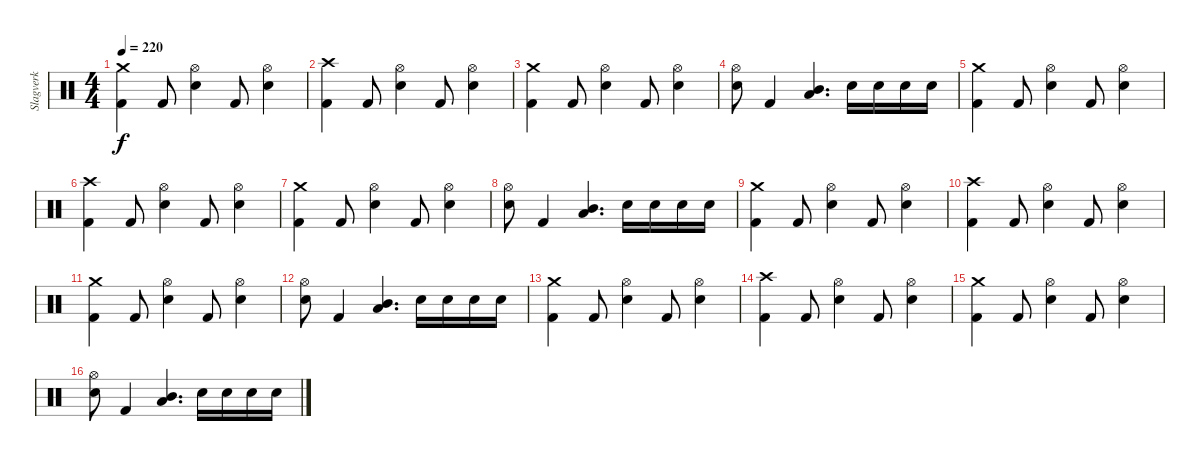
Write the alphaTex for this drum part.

\track ("Slagverk" "Slagverk") {instrument percussion}
\staff {score}
\articulation defaults
\ts (4 4)
\tempo 220
\clef neutral
\ks c
("Crash medium (hit)" "Kick (hit) 2").4{dy f} "Kick (hit) 2".8 ("Electric Snare (hit)" "Hi-Hat (open)").4 "Kick (hit) 2".8 ("Electric Snare (hit)" "Hi-Hat (open)").4 |
("Crash high (hit)" "Kick (hit) 2").4 "Kick (hit) 2".8 ("Electric Snare (hit)" "Hi-Hat (open)").4 "Kick (hit) 2".8 ("Electric Snare (hit)" "Hi-Hat (open)").4 |
("Crash medium (hit)" "Kick (hit) 2").4 "Kick (hit) 2".8 ("Electric Snare (hit)" "Hi-Hat (open)").4 "Kick (hit) 2".8 ("Electric Snare (hit)" "Hi-Hat (open)").4 |
("Electric Snare (hit)" "Hi-Hat (open)").8 "Kick (hit) 2".4 ("Mid Tom (hit)" "Low Tom (hit)").4{d} "Electric Snare (hit)".16 "Electric Snare (hit)".16 "Electric Snare (hit)".16 "Electric Snare (hit)".16 |
("Crash medium (hit)" "Kick (hit) 2").4 "Kick (hit) 2".8 ("Electric Snare (hit)" "Hi-Hat (open)").4 "Kick (hit) 2".8 ("Electric Snare (hit)" "Hi-Hat (open)").4 |
("Crash high (hit)" "Kick (hit) 2").4 "Kick (hit) 2".8 ("Electric Snare (hit)" "Hi-Hat (open)").4 "Kick (hit) 2".8 ("Electric Snare (hit)" "Hi-Hat (open)").4 |
("Crash medium (hit)" "Kick (hit) 2").4 "Kick (hit) 2".8 ("Electric Snare (hit)" "Hi-Hat (open)").4 "Kick (hit) 2".8 ("Electric Snare (hit)" "Hi-Hat (open)").4 |
("Electric Snare (hit)" "Hi-Hat (open)").8 "Kick (hit) 2".4 ("Mid Tom (hit)" "Low Tom (hit)").4{d} "Electric Snare (hit)".16 "Electric Snare (hit)".16 "Electric Snare (hit)".16 "Electric Snare (hit)".16 |
("Crash medium (hit)" "Kick (hit) 2").4 "Kick (hit) 2".8 ("Electric Snare (hit)" "Hi-Hat (open)").4 "Kick (hit) 2".8 ("Electric Snare (hit)" "Hi-Hat (open)").4 |
("Crash high (hit)" "Kick (hit) 2").4 "Kick (hit) 2".8 ("Electric Snare (hit)" "Hi-Hat (open)").4 "Kick (hit) 2".8 ("Electric Snare (hit)" "Hi-Hat (open)").4 |
("Crash medium (hit)" "Kick (hit) 2").4 "Kick (hit) 2".8 ("Electric Snare (hit)" "Hi-Hat (open)").4 "Kick (hit) 2".8 ("Electric Snare (hit)" "Hi-Hat (open)").4 |
("Electric Snare (hit)" "Hi-Hat (open)").8 "Kick (hit) 2".4 ("Mid Tom (hit)" "Low Tom (hit)").4{d} "Electric Snare (hit)".16 "Electric Snare (hit)".16 "Electric Snare (hit)".16 "Electric Snare (hit)".16 |
("Crash medium (hit)" "Kick (hit) 2").4 "Kick (hit) 2".8 ("Electric Snare (hit)" "Hi-Hat (open)").4 "Kick (hit) 2".8 ("Electric Snare (hit)" "Hi-Hat (open)").4 |
("Crash high (hit)" "Kick (hit) 2").4 "Kick (hit) 2".8 ("Electric Snare (hit)" "Hi-Hat (open)").4 "Kick (hit) 2".8 ("Electric Snare (hit)" "Hi-Hat (open)").4 |
("Crash medium (hit)" "Kick (hit) 2").4 "Kick (hit) 2".8 ("Electric Snare (hit)" "Hi-Hat (open)").4 "Kick (hit) 2".8 ("Electric Snare (hit)" "Hi-Hat (open)").4 |
("Electric Snare (hit)" "Hi-Hat (open)").8 "Kick (hit) 2".4 ("Mid Tom (hit)" "Low Tom (hit)").4{d} "Electric Snare (hit)".16 "Electric Snare (hit)".16 "Electric Snare (hit)".16 "Electric Snare (hit)".16
